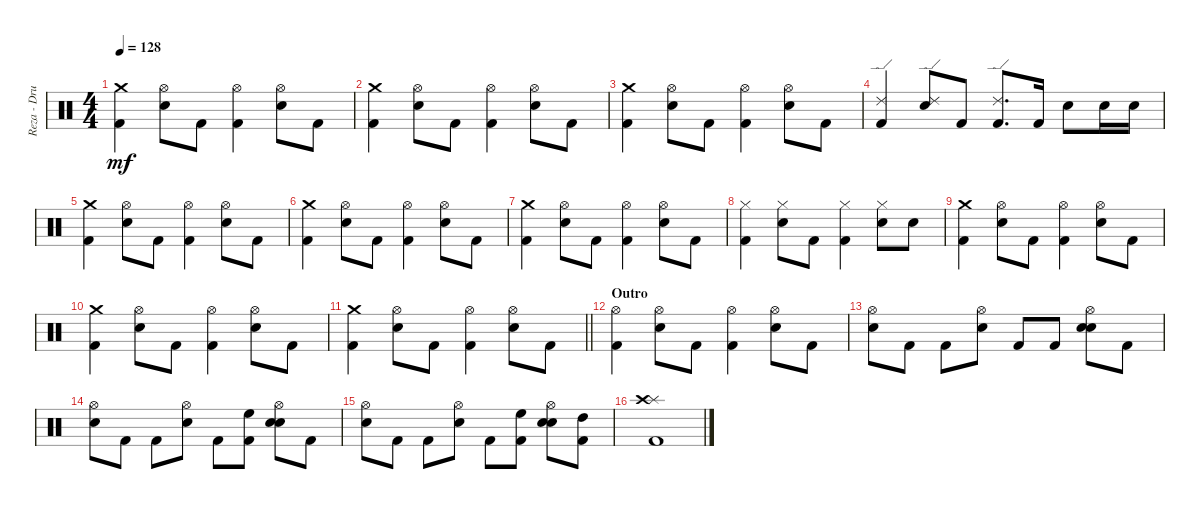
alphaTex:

\track ("Reza - Drum" "Reza - Dru") {instrument percussion}
\staff {score}
\articulation defaults
\ts (4 4)
\tempo 128
\clef neutral
\ks c
("Crash medium (hit)" "Kick (hit) 2").4{dy mf} ("Hi-Hat (open)" "Electric Snare (hit)").8 "Kick (hit) 2".8 ("Hi-Hat (open)" "Kick (hit) 2").4 ("Hi-Hat (open)" "Electric Snare (hit)").8 "Kick (hit) 2".8 |
("Crash medium (hit)" "Kick (hit) 2").4 ("Hi-Hat (open)" "Electric Snare (hit)").8 "Kick (hit) 2".8 ("Hi-Hat (open)" "Kick (hit) 2").4 ("Hi-Hat (open)" "Electric Snare (hit)").8 "Kick (hit) 2".8 |
("Crash medium (hit)" "Kick (hit) 2").4 ("Hi-Hat (open)" "Electric Snare (hit)").8 "Kick (hit) 2".8 ("Hi-Hat (open)" "Kick (hit) 2").4 ("Hi-Hat (open)" "Electric Snare (hit)").8 "Kick (hit) 2".8 |
("Ride (edge) 2" "Kick (hit) 2").4 ("Ride (edge) 2" "Electric Snare (hit)").8 "Kick (hit) 2".8 ("Ride (edge) 2" "Kick (hit) 2").8{d} "Kick (hit) 2".16 "Electric Snare (hit)".8 "Electric Snare (hit)".16 "Electric Snare (hit)".16 |
("Crash medium (hit)" "Kick (hit) 2").4 ("Hi-Hat (open)" "Electric Snare (hit)").8 "Kick (hit) 2".8 ("Hi-Hat (open)" "Kick (hit) 2").4 ("Hi-Hat (open)" "Electric Snare (hit)").8 "Kick (hit) 2".8 |
("Crash medium (hit)" "Kick (hit) 2").4 ("Hi-Hat (open)" "Electric Snare (hit)").8 "Kick (hit) 2".8 ("Hi-Hat (open)" "Kick (hit) 2").4 ("Hi-Hat (open)" "Electric Snare (hit)").8 "Kick (hit) 2".8 |
("Crash medium (hit)" "Kick (hit) 2").4 ("Hi-Hat (open)" "Electric Snare (hit)").8 "Kick (hit) 2".8 ("Hi-Hat (open)" "Kick (hit) 2").4 ("Hi-Hat (open)" "Electric Snare (hit)").8 "Kick (hit) 2".8 |
("Hi-Hat (closed)" "Kick (hit) 2").4 ("Hi-Hat (closed)" "Electric Snare (hit)").8 "Kick (hit) 2".8 ("Hi-Hat (closed)" "Kick (hit) 2").4 ("Hi-Hat (closed)" "Electric Snare (hit)").8 "Electric Snare (hit)".8 |
("Crash medium (hit)" "Kick (hit) 2").4 ("Hi-Hat (open)" "Electric Snare (hit)").8 "Kick (hit) 2".8 ("Hi-Hat (open)" "Kick (hit) 2").4 ("Hi-Hat (open)" "Electric Snare (hit)").8 "Kick (hit) 2".8 |
("Crash medium (hit)" "Kick (hit) 2").4 ("Hi-Hat (open)" "Electric Snare (hit)").8 "Kick (hit) 2".8 ("Hi-Hat (open)" "Kick (hit) 2").4 ("Hi-Hat (open)" "Electric Snare (hit)").8 "Kick (hit) 2".8 |
\barLineRight lightlight
("Crash medium (hit)" "Kick (hit) 2").4 ("Hi-Hat (open)" "Electric Snare (hit)").8 "Kick (hit) 2".8 ("Hi-Hat (open)" "Kick (hit) 2").4 ("Hi-Hat (open)" "Electric Snare (hit)").8 "Kick (hit) 2".8 |
\section ("" "Outro")
("Hi-Hat (open)" "Kick (hit) 2").4 ("Hi-Hat (open)" "Electric Snare (hit)").8 "Kick (hit) 2".8 ("Hi-Hat (open)" "Kick (hit) 2").4 ("Hi-Hat (open)" "Electric Snare (hit)").8 "Kick (hit) 2".8 |
("Hi-Hat (open)" "Electric Snare (hit)").8 "Kick (hit) 2".8 "Kick (hit) 2".8 ("Hi-Hat (open)" "Electric Snare (hit)").8 "Kick (hit) 2".8 "Kick (hit) 2".8 ("Hi-Hat (open)" "Snare (hit) 2" "Electric Snare (hit)").8 "Kick (hit) 2".8 |
("Hi-Hat (open)" "Electric Snare (hit)").8 "Kick (hit) 2".8 "Kick (hit) 2".8 ("Hi-Hat (open)" "Electric Snare (hit)").8 "Kick (hit) 2".8 ("High Floor Tom (hit)" "Kick (hit) 2").8 ("Hi-Hat (open)" "Snare (hit) 2" "Electric Snare (hit)").8 "Kick (hit) 2".8 |
("Hi-Hat (open)" "Electric Snare (hit)").8 "Kick (hit) 2".8 "Kick (hit) 2".8 ("Hi-Hat (open)" "Electric Snare (hit)").8 "Kick (hit) 2".8 ("High Floor Tom (hit)" "Kick (hit) 2").8 ("Hi-Hat (open)" "Snare (hit) 2" "Electric Snare (hit)").8 ("High Tom (hit)" "Kick (hit) 2").8 |
("Splash (hit)" "Crash high (hit)" "Kick (hit) 2").1
